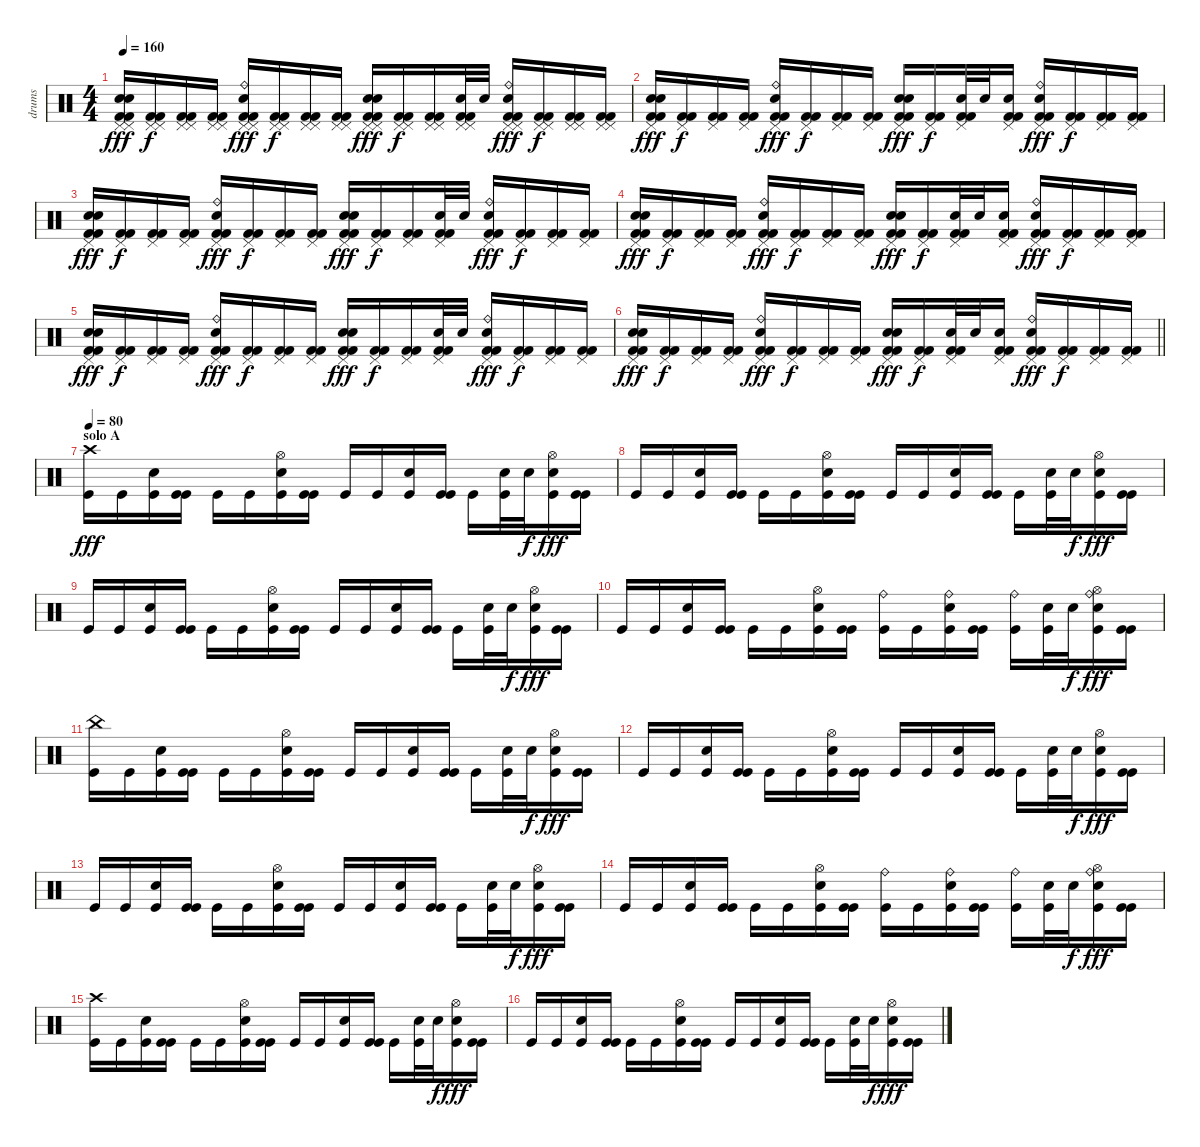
\track ("drums" "drums") {instrument percussion}
\staff {score}
\articulation defaults
\ts (4 4)
\tempo 160
\clef neutral
\ks c
("Electric Snare (hit)" "Electric Snare (hit)" "Pedal Hi-Hat (hit)" "Pedal Hi-Hat (hit)" "Kick (hit) 2" "Kick (hit) 2").16{dy fff} ("Pedal Hi-Hat (hit)" "Pedal Hi-Hat (hit)" "Kick (hit) 2" "Kick (hit) 2").16{dy f} ("Pedal Hi-Hat (hit)" "Pedal Hi-Hat (hit)" "Kick (hit) 2" "Kick (hit) 2").16 ("Pedal Hi-Hat (hit)" "Pedal Hi-Hat (hit)" "Kick (hit) 2" "Kick (hit) 2").16 ("Ride (bell)" "Snare (hit) 2" "Pedal Hi-Hat (hit)" "Pedal Hi-Hat (hit)" "Kick (hit) 2" "Kick (hit) 2").16{dy fff} ("Pedal Hi-Hat (hit)" "Pedal Hi-Hat (hit)" "Kick (hit) 2" "Kick (hit) 2").16{dy f} ("Pedal Hi-Hat (hit)" "Pedal Hi-Hat (hit)" "Kick (hit) 2" "Kick (hit) 2").16 ("Pedal Hi-Hat (hit)" "Pedal Hi-Hat (hit)" "Kick (hit) 2" "Kick (hit) 2").16 ("Electric Snare (hit)" "Electric Snare (hit)" "Pedal Hi-Hat (hit)" "Pedal Hi-Hat (hit)" "Kick (hit) 2" "Kick (hit) 2").16{dy fff} ("Pedal Hi-Hat (hit)" "Pedal Hi-Hat (hit)" "Kick (hit) 2" "Kick (hit) 2").16{dy f} ("Pedal Hi-Hat (hit)" "Pedal Hi-Hat (hit)" "Kick (hit) 2" "Kick (hit) 2").16 ("Electric Snare (hit)" "Pedal Hi-Hat (hit)" "Pedal Hi-Hat (hit)" "Kick (hit) 2" "Kick (hit) 2").32 "Electric Snare (hit)".32 ("Ride (bell)" "Electric Snare (hit)" "Pedal Hi-Hat (hit)" "Pedal Hi-Hat (hit)" "Kick (hit) 2" "Kick (hit) 2").16{dy fff} ("Pedal Hi-Hat (hit)" "Pedal Hi-Hat (hit)" "Kick (hit) 2" "Kick (hit) 2").16{dy f} ("Pedal Hi-Hat (hit)" "Pedal Hi-Hat (hit)" "Kick (hit) 2" "Kick (hit) 2").16 ("Pedal Hi-Hat (hit)" "Pedal Hi-Hat (hit)" "Kick (hit) 2" "Kick (hit) 2").16 |
("Electric Snare (hit)" "Electric Snare (hit)" "Pedal Hi-Hat (hit)" "Kick (hit) 2" "Kick (hit) 2").16{dy fff} ("Pedal Hi-Hat (hit)" "Kick (hit) 2" "Kick (hit) 2").16{dy f} ("Pedal Hi-Hat (hit)" "Kick (hit) 2" "Kick (hit) 2").16 ("Pedal Hi-Hat (hit)" "Kick (hit) 2" "Kick (hit) 2").16 ("Ride (bell)" "Snare (hit) 2" "Pedal Hi-Hat (hit)" "Kick (hit) 2" "Kick (hit) 2").16{dy fff} ("Pedal Hi-Hat (hit)" "Kick (hit) 2" "Kick (hit) 2").16{dy f} ("Pedal Hi-Hat (hit)" "Kick (hit) 2" "Kick (hit) 2").16 ("Pedal Hi-Hat (hit)" "Kick (hit) 2" "Kick (hit) 2").16 ("Electric Snare (hit)" "Electric Snare (hit)" "Pedal Hi-Hat (hit)" "Kick (hit) 2" "Kick (hit) 2").16{dy fff} ("Pedal Hi-Hat (hit)" "Kick (hit) 2" "Kick (hit) 2").16{dy f} ("Electric Snare (hit)" "Pedal Hi-Hat (hit)" "Kick (hit) 2" "Kick (hit) 2").32 "Electric Snare (hit)".32 ("Electric Snare (hit)" "Pedal Hi-Hat (hit)" "Kick (hit) 2" "Kick (hit) 2").16 ("Ride (bell)" "Snare (hit) 2" "Pedal Hi-Hat (hit)" "Kick (hit) 2" "Kick (hit) 2").16{dy fff} ("Pedal Hi-Hat (hit)" "Kick (hit) 2" "Kick (hit) 2").16{dy f} ("Pedal Hi-Hat (hit)" "Kick (hit) 2" "Kick (hit) 2").16 ("Pedal Hi-Hat (hit)" "Kick (hit) 2" "Kick (hit) 2").16 |
("Electric Snare (hit)" "Electric Snare (hit)" "Pedal Hi-Hat (hit)" "Kick (hit) 2" "Kick (hit) 2").16{dy fff} ("Pedal Hi-Hat (hit)" "Kick (hit) 2" "Kick (hit) 2").16{dy f} ("Pedal Hi-Hat (hit)" "Kick (hit) 2" "Kick (hit) 2").16 ("Pedal Hi-Hat (hit)" "Kick (hit) 2" "Kick (hit) 2").16 ("Ride (bell)" "Snare (hit) 2" "Pedal Hi-Hat (hit)" "Kick (hit) 2" "Kick (hit) 2").16{dy fff} ("Pedal Hi-Hat (hit)" "Kick (hit) 2" "Kick (hit) 2").16{dy f} ("Pedal Hi-Hat (hit)" "Kick (hit) 2" "Kick (hit) 2").16 ("Pedal Hi-Hat (hit)" "Kick (hit) 2" "Kick (hit) 2").16 ("Electric Snare (hit)" "Electric Snare (hit)" "Pedal Hi-Hat (hit)" "Kick (hit) 2" "Kick (hit) 2").16{dy fff} ("Pedal Hi-Hat (hit)" "Kick (hit) 2" "Kick (hit) 2").16{dy f} ("Pedal Hi-Hat (hit)" "Kick (hit) 2" "Kick (hit) 2").16 ("Electric Snare (hit)" "Pedal Hi-Hat (hit)" "Kick (hit) 2" "Kick (hit) 2").32 "Electric Snare (hit)".32 ("Ride (bell)" "Electric Snare (hit)" "Pedal Hi-Hat (hit)" "Kick (hit) 2" "Kick (hit) 2").16{dy fff} ("Pedal Hi-Hat (hit)" "Kick (hit) 2" "Kick (hit) 2").16{dy f} ("Pedal Hi-Hat (hit)" "Kick (hit) 2" "Kick (hit) 2").16 ("Pedal Hi-Hat (hit)" "Kick (hit) 2" "Kick (hit) 2").16 |
("Electric Snare (hit)" "Electric Snare (hit)" "Pedal Hi-Hat (hit)" "Kick (hit) 2" "Kick (hit) 2").16{dy fff} ("Pedal Hi-Hat (hit)" "Kick (hit) 2" "Kick (hit) 2").16{dy f} ("Pedal Hi-Hat (hit)" "Kick (hit) 2" "Kick (hit) 2").16 ("Pedal Hi-Hat (hit)" "Kick (hit) 2" "Kick (hit) 2").16 ("Ride (bell)" "Snare (hit) 2" "Pedal Hi-Hat (hit)" "Kick (hit) 2" "Kick (hit) 2").16{dy fff} ("Pedal Hi-Hat (hit)" "Kick (hit) 2" "Kick (hit) 2").16{dy f} ("Pedal Hi-Hat (hit)" "Kick (hit) 2" "Kick (hit) 2").16 ("Pedal Hi-Hat (hit)" "Kick (hit) 2" "Kick (hit) 2").16 ("Electric Snare (hit)" "Electric Snare (hit)" "Pedal Hi-Hat (hit)" "Kick (hit) 2" "Kick (hit) 2").16{dy fff} ("Pedal Hi-Hat (hit)" "Kick (hit) 2" "Kick (hit) 2").16{dy f} ("Electric Snare (hit)" "Pedal Hi-Hat (hit)" "Kick (hit) 2" "Kick (hit) 2").32 "Electric Snare (hit)".32 ("Electric Snare (hit)" "Pedal Hi-Hat (hit)" "Kick (hit) 2" "Kick (hit) 2").16 ("Ride (bell)" "Snare (hit) 2" "Pedal Hi-Hat (hit)" "Kick (hit) 2" "Kick (hit) 2").16{dy fff} ("Pedal Hi-Hat (hit)" "Kick (hit) 2" "Kick (hit) 2").16{dy f} ("Pedal Hi-Hat (hit)" "Kick (hit) 2" "Kick (hit) 2").16 ("Pedal Hi-Hat (hit)" "Kick (hit) 2" "Kick (hit) 2").16 |
("Electric Snare (hit)" "Electric Snare (hit)" "Pedal Hi-Hat (hit)" "Kick (hit) 2" "Kick (hit) 2").16{dy fff} ("Pedal Hi-Hat (hit)" "Kick (hit) 2" "Kick (hit) 2").16{dy f} ("Pedal Hi-Hat (hit)" "Kick (hit) 2" "Kick (hit) 2").16 ("Pedal Hi-Hat (hit)" "Kick (hit) 2" "Kick (hit) 2").16 ("Ride (bell)" "Snare (hit) 2" "Pedal Hi-Hat (hit)" "Kick (hit) 2" "Kick (hit) 2").16{dy fff} ("Pedal Hi-Hat (hit)" "Kick (hit) 2" "Kick (hit) 2").16{dy f} ("Pedal Hi-Hat (hit)" "Kick (hit) 2" "Kick (hit) 2").16 ("Pedal Hi-Hat (hit)" "Kick (hit) 2" "Kick (hit) 2").16 ("Electric Snare (hit)" "Electric Snare (hit)" "Pedal Hi-Hat (hit)" "Kick (hit) 2" "Kick (hit) 2").16{dy fff} ("Pedal Hi-Hat (hit)" "Kick (hit) 2" "Kick (hit) 2").16{dy f} ("Pedal Hi-Hat (hit)" "Kick (hit) 2" "Kick (hit) 2").16 ("Electric Snare (hit)" "Pedal Hi-Hat (hit)" "Kick (hit) 2" "Kick (hit) 2").32 "Electric Snare (hit)".32 ("Ride (bell)" "Electric Snare (hit)" "Pedal Hi-Hat (hit)" "Kick (hit) 2" "Kick (hit) 2").16{dy fff} ("Pedal Hi-Hat (hit)" "Kick (hit) 2" "Kick (hit) 2").16{dy f} ("Pedal Hi-Hat (hit)" "Kick (hit) 2" "Kick (hit) 2").16 ("Pedal Hi-Hat (hit)" "Kick (hit) 2" "Kick (hit) 2").16 |
\barLineRight lightlight
("Electric Snare (hit)" "Electric Snare (hit)" "Pedal Hi-Hat (hit)" "Kick (hit) 2" "Kick (hit) 2").16{dy fff} ("Pedal Hi-Hat (hit)" "Kick (hit) 2" "Kick (hit) 2").16{dy f} ("Pedal Hi-Hat (hit)" "Kick (hit) 2" "Kick (hit) 2").16 ("Pedal Hi-Hat (hit)" "Kick (hit) 2" "Kick (hit) 2").16 ("Ride (bell)" "Snare (hit) 2" "Pedal Hi-Hat (hit)" "Kick (hit) 2" "Kick (hit) 2").16{dy fff} ("Pedal Hi-Hat (hit)" "Kick (hit) 2" "Kick (hit) 2").16{dy f} ("Pedal Hi-Hat (hit)" "Kick (hit) 2" "Kick (hit) 2").16 ("Pedal Hi-Hat (hit)" "Kick (hit) 2" "Kick (hit) 2").16 ("Electric Snare (hit)" "Electric Snare (hit)" "Pedal Hi-Hat (hit)" "Kick (hit) 2" "Kick (hit) 2").16{dy fff} ("Pedal Hi-Hat (hit)" "Kick (hit) 2" "Kick (hit) 2").16{dy f} ("Electric Snare (hit)" "Pedal Hi-Hat (hit)" "Kick (hit) 2" "Kick (hit) 2").32 "Electric Snare (hit)".32 ("Electric Snare (hit)" "Pedal Hi-Hat (hit)" "Kick (hit) 2" "Kick (hit) 2").16 ("Ride (bell)" "Snare (hit) 2" "Pedal Hi-Hat (hit)" "Kick (hit) 2" "Kick (hit) 2").16{dy fff} ("Pedal Hi-Hat (hit)" "Kick (hit) 2" "Kick (hit) 2").16{dy f} ("Pedal Hi-Hat (hit)" "Kick (hit) 2" "Kick (hit) 2").16 ("Pedal Hi-Hat (hit)" "Kick (hit) 2" "Kick (hit) 2").16 |
\section ("" "solo A")
\tempo 80
("Kick (hit)" "Crash high (hit)").16{dy fff} "Kick (hit)".16 ("Kick (hit)" "Electric Snare (hit)").16 ("Kick (hit)" "Kick (hit)").16 "Kick (hit)".16 "Kick (hit)".16 ("Kick (hit)" "Electric Snare (hit)" "Hi-Hat (open)").16 ("Kick (hit)" "Kick (hit)").16 "Kick (hit)".16 "Kick (hit)".16 ("Kick (hit)" "Electric Snare (hit)").16 ("Kick (hit)" "Kick (hit)").16 "Kick (hit)".16 ("Kick (hit)" "Electric Snare (hit)").32 "Electric Snare (hit)".32{dy f} ("Kick (hit)" "Snare (hit)" "Hi-Hat (open)").16{dy fff} ("Kick (hit)" "Kick (hit)").16 |
"Kick (hit)".16 "Kick (hit)".16 ("Kick (hit)" "Electric Snare (hit)").16 ("Kick (hit)" "Kick (hit)").16 "Kick (hit)".16 "Kick (hit)".16 ("Kick (hit)" "Electric Snare (hit)" "Hi-Hat (open)").16 ("Kick (hit)" "Kick (hit)").16 "Kick (hit)".16 "Kick (hit)".16 ("Kick (hit)" "Electric Snare (hit)").16 ("Kick (hit)" "Kick (hit)").16 "Kick (hit)".16 ("Kick (hit)" "Electric Snare (hit)").32 "Electric Snare (hit)".32{dy f} ("Kick (hit)" "Snare (hit)" "Hi-Hat (open)").16{dy fff} ("Kick (hit)" "Kick (hit)").16 |
"Kick (hit)".16 "Kick (hit)".16 ("Kick (hit)" "Electric Snare (hit)").16 ("Kick (hit)" "Kick (hit)").16 "Kick (hit)".16 "Kick (hit)".16 ("Kick (hit)" "Electric Snare (hit)" "Hi-Hat (open)").16 ("Kick (hit)" "Kick (hit)").16 "Kick (hit)".16 "Kick (hit)".16 ("Kick (hit)" "Electric Snare (hit)").16 ("Kick (hit)" "Kick (hit)").16 "Kick (hit)".16 ("Kick (hit)" "Electric Snare (hit)").32 "Electric Snare (hit)".32{dy f} ("Kick (hit)" "Snare (hit)" "Hi-Hat (open)").16{dy fff} ("Kick (hit)" "Kick (hit)").16 |
"Kick (hit)".16 "Kick (hit)".16 ("Kick (hit)" "Electric Snare (hit)").16 ("Kick (hit)" "Kick (hit)").16 "Kick (hit)".16 "Kick (hit)".16 ("Kick (hit)" "Electric Snare (hit)" "Hi-Hat (open)").16 ("Kick (hit)" "Kick (hit)").16 ("Kick (hit)" "Ride (bell)").16 "Kick (hit)".16 ("Kick (hit)" "Electric Snare (hit)" "Ride (bell)").16 ("Kick (hit)" "Kick (hit)").16 ("Kick (hit)" "Ride (bell)").16 ("Kick (hit)" "Electric Snare (hit)").32 "Electric Snare (hit)".32{dy f} ("Kick (hit)" "Snare (hit)" "Hi-Hat (open)" "Ride (bell)").16{dy fff} ("Kick (hit)" "Kick (hit)").16 |
("Kick (hit)" "China (hit)").16 "Kick (hit)".16 ("Kick (hit)" "Electric Snare (hit)").16 ("Kick (hit)" "Kick (hit)").16 "Kick (hit)".16 "Kick (hit)".16 ("Kick (hit)" "Electric Snare (hit)" "Hi-Hat (open)").16 ("Kick (hit)" "Kick (hit)").16 "Kick (hit)".16 "Kick (hit)".16 ("Kick (hit)" "Electric Snare (hit)").16 ("Kick (hit)" "Kick (hit)").16 "Kick (hit)".16 ("Kick (hit)" "Electric Snare (hit)").32 "Electric Snare (hit)".32{dy f} ("Kick (hit)" "Snare (hit)" "Hi-Hat (open)").16{dy fff} ("Kick (hit)" "Kick (hit)").16 |
"Kick (hit)".16 "Kick (hit)".16 ("Kick (hit)" "Electric Snare (hit)").16 ("Kick (hit)" "Kick (hit)").16 "Kick (hit)".16 "Kick (hit)".16 ("Kick (hit)" "Electric Snare (hit)" "Hi-Hat (open)").16 ("Kick (hit)" "Kick (hit)").16 "Kick (hit)".16 "Kick (hit)".16 ("Kick (hit)" "Electric Snare (hit)").16 ("Kick (hit)" "Kick (hit)").16 "Kick (hit)".16 ("Kick (hit)" "Electric Snare (hit)").32 "Electric Snare (hit)".32{dy f} ("Kick (hit)" "Snare (hit)" "Hi-Hat (open)").16{dy fff} ("Kick (hit)" "Kick (hit)").16 |
"Kick (hit)".16 "Kick (hit)".16 ("Kick (hit)" "Electric Snare (hit)").16 ("Kick (hit)" "Kick (hit)").16 "Kick (hit)".16 "Kick (hit)".16 ("Kick (hit)" "Electric Snare (hit)" "Hi-Hat (open)").16 ("Kick (hit)" "Kick (hit)").16 "Kick (hit)".16 "Kick (hit)".16 ("Kick (hit)" "Electric Snare (hit)").16 ("Kick (hit)" "Kick (hit)").16 "Kick (hit)".16 ("Kick (hit)" "Electric Snare (hit)").32 "Electric Snare (hit)".32{dy f} ("Kick (hit)" "Snare (hit)" "Hi-Hat (open)").16{dy fff} ("Kick (hit)" "Kick (hit)").16 |
"Kick (hit)".16 "Kick (hit)".16 ("Kick (hit)" "Electric Snare (hit)").16 ("Kick (hit)" "Kick (hit)").16 "Kick (hit)".16 "Kick (hit)".16 ("Kick (hit)" "Electric Snare (hit)" "Hi-Hat (open)").16 ("Kick (hit)" "Kick (hit)").16 ("Kick (hit)" "Ride (bell)").16 "Kick (hit)".16 ("Kick (hit)" "Electric Snare (hit)" "Ride (bell)").16 ("Kick (hit)" "Kick (hit)").16 ("Kick (hit)" "Ride (bell)").16 ("Kick (hit)" "Electric Snare (hit)").32 "Electric Snare (hit)".32{dy f} ("Kick (hit)" "Snare (hit)" "Hi-Hat (open)" "Ride (bell)").16{dy fff} ("Kick (hit)" "Kick (hit)").16 |
("Kick (hit)" "Crash high (hit)").16 "Kick (hit)".16 ("Kick (hit)" "Electric Snare (hit)").16 ("Kick (hit)" "Kick (hit)").16 "Kick (hit)".16 "Kick (hit)".16 ("Kick (hit)" "Electric Snare (hit)" "Hi-Hat (open)").16 ("Kick (hit)" "Kick (hit)").16 "Kick (hit)".16 "Kick (hit)".16 ("Kick (hit)" "Electric Snare (hit)").16 ("Kick (hit)" "Kick (hit)").16 "Kick (hit)".16 ("Kick (hit)" "Electric Snare (hit)").32 "Electric Snare (hit)".32{dy f} ("Kick (hit)" "Snare (hit)" "Hi-Hat (open)").16{dy fff} ("Kick (hit)" "Kick (hit)").16 |
"Kick (hit)".16 "Kick (hit)".16 ("Kick (hit)" "Electric Snare (hit)").16 ("Kick (hit)" "Kick (hit)").16 "Kick (hit)".16 "Kick (hit)".16 ("Kick (hit)" "Electric Snare (hit)" "Hi-Hat (open)").16 ("Kick (hit)" "Kick (hit)").16 "Kick (hit)".16 "Kick (hit)".16 ("Kick (hit)" "Electric Snare (hit)").16 ("Kick (hit)" "Kick (hit)").16 "Kick (hit)".16 ("Kick (hit)" "Electric Snare (hit)").32 "Electric Snare (hit)".32{dy f} ("Kick (hit)" "Snare (hit)" "Hi-Hat (open)").16{dy fff} ("Kick (hit)" "Kick (hit)").16
